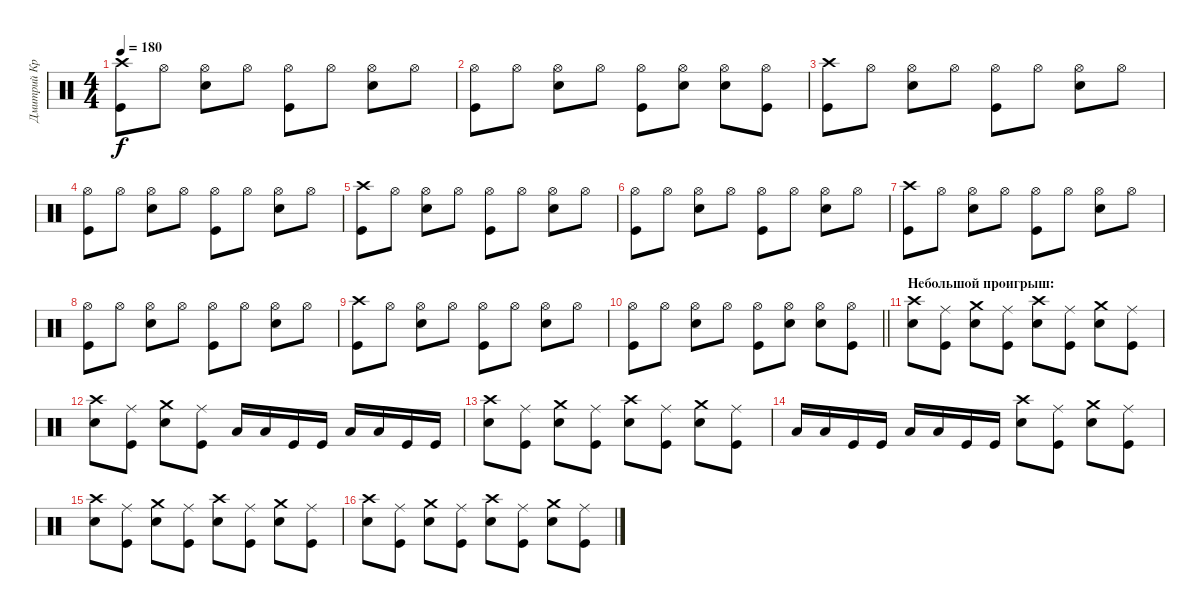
\track ("Дмитрий Кривенков" "Дмитрий Кр") {instrument percussion}
\staff {score}
\articulation defaults
\ts (4 4)
\tempo 180
\clef neutral
\ks c
("Crash high (hit)" "Kick (hit)").8{dy f} "Hi-Hat (open)".8 ("Hi-Hat (open)" "Electric Snare (hit)").8 "Hi-Hat (open)".8 ("Hi-Hat (open)" "Kick (hit)").8 "Hi-Hat (open)".8 ("Hi-Hat (open)" "Electric Snare (hit)").8 "Hi-Hat (open)".8 |
("Hi-Hat (open)" "Kick (hit)").8 "Hi-Hat (open)".8 ("Hi-Hat (open)" "Electric Snare (hit)").8 "Hi-Hat (open)".8 ("Hi-Hat (open)" "Kick (hit)").8 ("Hi-Hat (open)" "Electric Snare (hit)").8 ("Hi-Hat (open)" "Electric Snare (hit)").8 ("Hi-Hat (open)" "Kick (hit)").8 |
("Crash high (hit)" "Kick (hit)").8 "Hi-Hat (open)".8 ("Hi-Hat (open)" "Electric Snare (hit)").8 "Hi-Hat (open)".8 ("Hi-Hat (open)" "Kick (hit)").8 "Hi-Hat (open)".8 ("Hi-Hat (open)" "Electric Snare (hit)").8 "Hi-Hat (open)".8 |
("Hi-Hat (open)" "Kick (hit)").8 "Hi-Hat (open)".8 ("Hi-Hat (open)" "Electric Snare (hit)").8 "Hi-Hat (open)".8 ("Hi-Hat (open)" "Kick (hit)").8 "Hi-Hat (open)".8 ("Hi-Hat (open)" "Electric Snare (hit)").8 "Hi-Hat (open)".8 |
("Crash high (hit)" "Kick (hit)").8 "Hi-Hat (open)".8 ("Hi-Hat (open)" "Electric Snare (hit)").8 "Hi-Hat (open)".8 ("Hi-Hat (open)" "Kick (hit)").8 "Hi-Hat (open)".8 ("Hi-Hat (open)" "Electric Snare (hit)").8 "Hi-Hat (open)".8 |
("Hi-Hat (open)" "Kick (hit)").8 "Hi-Hat (open)".8 ("Hi-Hat (open)" "Electric Snare (hit)").8 "Hi-Hat (open)".8 ("Hi-Hat (open)" "Kick (hit)").8 "Hi-Hat (open)".8 ("Hi-Hat (open)" "Electric Snare (hit)").8 "Hi-Hat (open)".8 |
("Crash high (hit)" "Kick (hit)").8 "Hi-Hat (open)".8 ("Hi-Hat (open)" "Electric Snare (hit)").8 "Hi-Hat (open)".8 ("Hi-Hat (open)" "Kick (hit)").8 "Hi-Hat (open)".8 ("Hi-Hat (open)" "Electric Snare (hit)").8 "Hi-Hat (open)".8 |
("Hi-Hat (open)" "Kick (hit)").8 "Hi-Hat (open)".8 ("Hi-Hat (open)" "Electric Snare (hit)").8 "Hi-Hat (open)".8 ("Hi-Hat (open)" "Kick (hit)").8 "Hi-Hat (open)".8 ("Hi-Hat (open)" "Electric Snare (hit)").8 "Hi-Hat (open)".8 |
("Crash high (hit)" "Kick (hit)").8 "Hi-Hat (open)".8 ("Hi-Hat (open)" "Electric Snare (hit)").8 "Hi-Hat (open)".8 ("Hi-Hat (open)" "Kick (hit)").8 "Hi-Hat (open)".8 ("Hi-Hat (open)" "Electric Snare (hit)").8 "Hi-Hat (open)".8 |
\barLineRight lightlight
("Hi-Hat (open)" "Kick (hit)").8 "Hi-Hat (open)".8 ("Hi-Hat (open)" "Electric Snare (hit)").8 "Hi-Hat (open)".8 ("Hi-Hat (open)" "Kick (hit)").8 ("Hi-Hat (open)" "Electric Snare (hit)").8 ("Hi-Hat (open)" "Electric Snare (hit)").8 ("Hi-Hat (open)" "Kick (hit)").8 |
\section ("" "Небольшой проигрыш:")
("Crash high (hit)" "Electric Snare (hit)").8 ("Ride (middle)" "Kick (hit)").8 ("Crash medium (hit)" "Electric Snare (hit)").8 ("Ride (middle)" "Kick (hit)").8 ("Crash high (hit)" "Electric Snare (hit)").8 ("Ride (middle)" "Kick (hit)").8 ("Crash medium (hit)" "Electric Snare (hit)").8 ("Ride (middle)" "Kick (hit)").8 |
("Crash high (hit)" "Electric Snare (hit)").8 ("Ride (middle)" "Kick (hit)").8 ("Crash medium (hit)" "Electric Snare (hit)").8 ("Ride (middle)" "Kick (hit)").8 "Low Tom (hit)".16 "Low Tom (hit)".16 "Kick (hit)".16 "Kick (hit)".16 "Low Floor Tom (hit)".16 "Low Floor Tom (hit)".16 "Kick (hit)".16 "Kick (hit)".16 |
("Crash high (hit)" "Electric Snare (hit)").8 ("Ride (middle)" "Kick (hit)").8 ("Crash medium (hit)" "Electric Snare (hit)").8 ("Ride (middle)" "Kick (hit)").8 ("Crash high (hit)" "Electric Snare (hit)").8 ("Ride (middle)" "Kick (hit)").8 ("Crash medium (hit)" "Electric Snare (hit)").8 ("Ride (middle)" "Kick (hit)").8 |
"Low Floor Tom (hit)".16 "Low Floor Tom (hit)".16 "Kick (hit)".16 "Kick (hit)".16 "Low Tom (hit)".16 "Low Tom (hit)".16 "Kick (hit)".16 "Kick (hit)".16 ("Crash high (hit)" "Electric Snare (hit)").8 ("Ride (middle)" "Kick (hit)").8 ("Crash medium (hit)" "Electric Snare (hit)").8 ("Ride (middle)" "Kick (hit)").8 |
("Crash high (hit)" "Electric Snare (hit)").8 ("Ride (middle)" "Kick (hit)").8 ("Crash medium (hit)" "Electric Snare (hit)").8 ("Ride (middle)" "Kick (hit)").8 ("Crash high (hit)" "Electric Snare (hit)").8 ("Ride (middle)" "Kick (hit)").8 ("Crash medium (hit)" "Electric Snare (hit)").8 ("Ride (middle)" "Kick (hit)").8 |
("Crash high (hit)" "Electric Snare (hit)").8 ("Ride (middle)" "Kick (hit)").8 ("Crash medium (hit)" "Electric Snare (hit)").8 ("Ride (middle)" "Kick (hit)").8 ("Crash high (hit)" "Electric Snare (hit)").8 ("Ride (middle)" "Kick (hit)").8 ("Crash medium (hit)" "Electric Snare (hit)").8 ("Ride (middle)" "Kick (hit)").8
